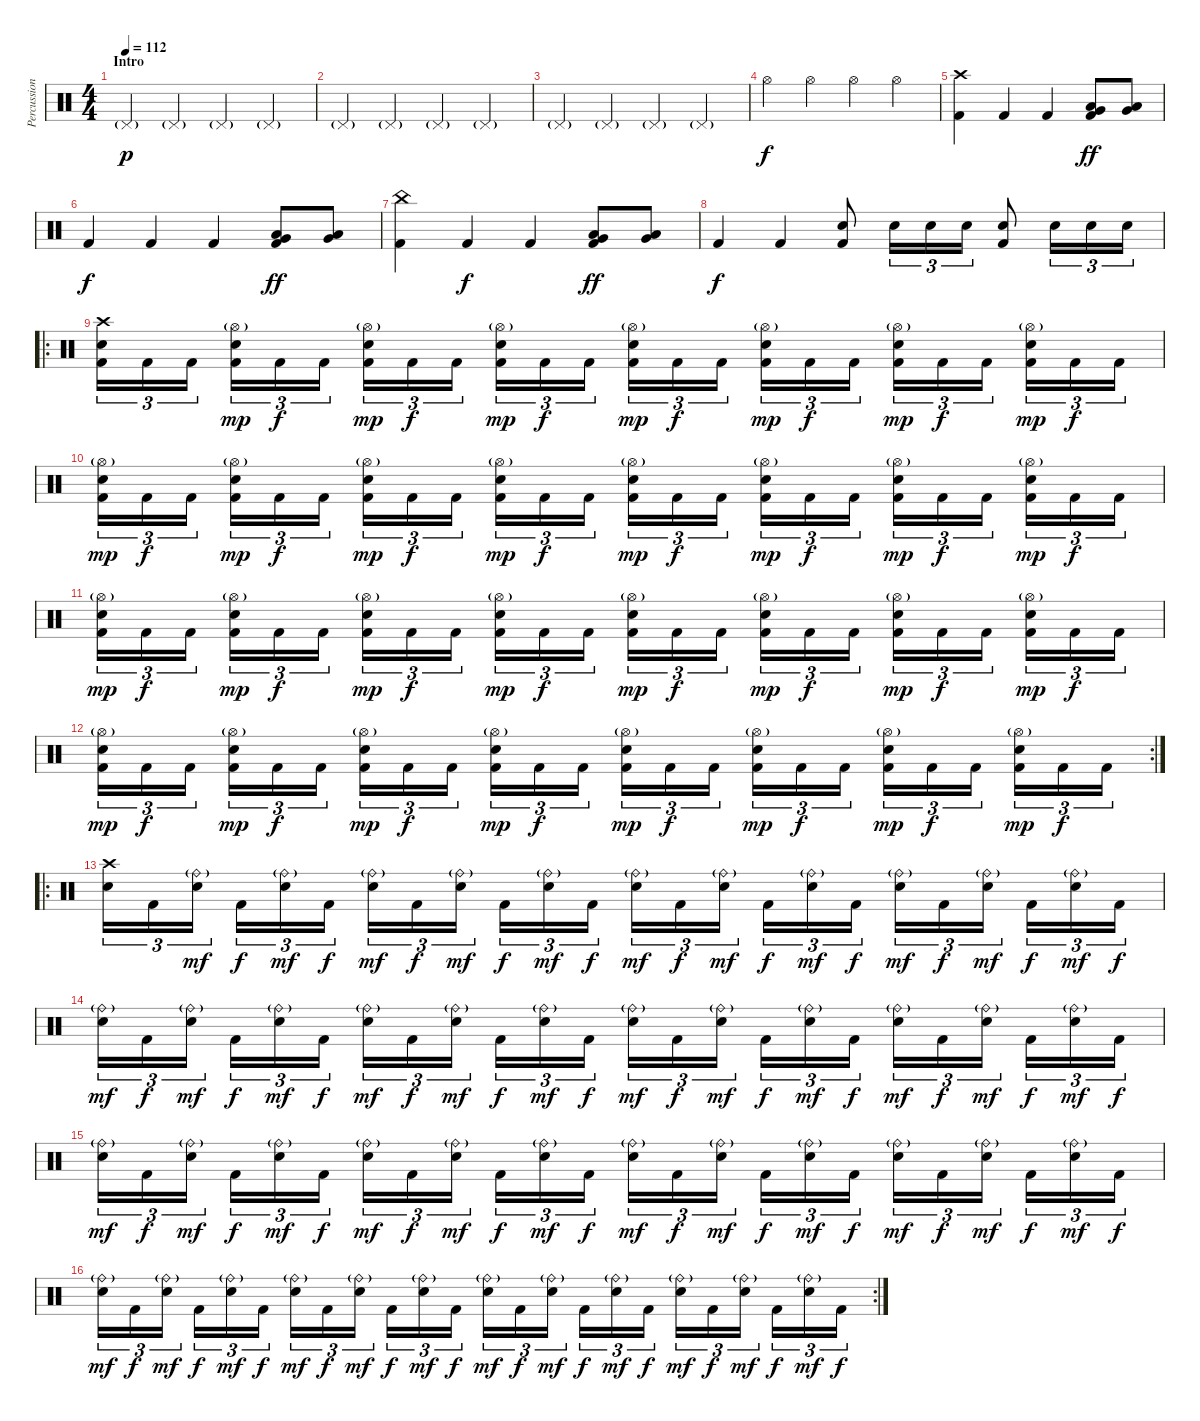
\track ("Percussion" "Percussion") {instrument percussion}
\staff {score}
\articulation defaults
\ts (4 4)
\section ("" "Intro")
\tempo 112
\clef neutral
\ks c "Pedal Hi-Hat (hit)"{g}.4{dy p} "Pedal Hi-Hat (hit)"{g}.4 "Pedal Hi-Hat (hit)"{g}.4 "Pedal Hi-Hat (hit)"{g}.4
|
"Pedal Hi-Hat (hit)"{g}.4 "Pedal Hi-Hat (hit)"{g}.4 "Pedal Hi-Hat (hit)"{g}.4 "Pedal Hi-Hat (hit)"{g}.4 |
"Pedal Hi-Hat (hit)"{g}.4 "Pedal Hi-Hat (hit)"{g}.4 "Pedal Hi-Hat (hit)"{g}.4 "Pedal Hi-Hat (hit)"{g}.4 |
"Hi-Hat (open)".4{dy f} "Hi-Hat (open)".4 "Hi-Hat (open)".4 "Hi-Hat (open)".4 |
("Crash high (hit)" "Kick (hit) 2").4 "Kick (hit) 2".4 "Kick (hit) 2".4 ("Very Low Tom (hit)" "Low Tom (hit)" "Kick (hit) 2").8{dy ff} ("Very Low Tom (hit)" "Low Tom (hit)").8 |
"Kick (hit) 2".4{dy f} "Kick (hit) 2".4 "Kick (hit) 2".4 ("Very Low Tom (hit)" "Low Tom (hit)" "Kick (hit) 2").8{dy ff} ("Very Low Tom (hit)" "Low Tom (hit)").8 |
("China (hit)" "Kick (hit) 2").4 "Kick (hit) 2".4{dy f} "Kick (hit) 2".4 ("Very Low Tom (hit)" "Low Tom (hit)" "Kick (hit) 2").8{dy ff} ("Very Low Tom (hit)" "Low Tom (hit)").8 |
"Kick (hit) 2".4{dy f} "Kick (hit) 2".4 ("Electric Snare (hit)" "Kick (hit) 2").8 "Electric Snare (hit)".16{tu (3 2)} "Electric Snare (hit)".16{tu (3 2)} "Electric Snare (hit)".16{tu (3 2)} ("Electric Snare (hit)" "Kick (hit) 2").8 "Electric Snare (hit)".16{tu (3 2)} "Electric Snare (hit)".16{tu (3 2)} "Electric Snare (hit)".16{tu (3 2)} |
\ro
("Crash high (hit)" "Electric Snare (hit)" "Kick (hit) 2").16{tu (3 2)} "Kick (hit) 2".16{tu (3 2)} "Kick (hit) 2".16{tu (3 2)} ("Hi-Hat (open)"{g} "Electric Snare (hit)" "Kick (hit) 2").16{tu (3 2) dy mp} "Kick (hit) 2".16{tu (3 2) dy f} "Kick (hit) 2".16{tu (3 2)} ("Hi-Hat (open)"{g} "Electric Snare (hit)" "Kick (hit) 2").16{tu (3 2) dy mp} "Kick (hit) 2".16{tu (3 2) dy f} "Kick (hit) 2".16{tu (3 2)} ("Hi-Hat (open)"{g} "Electric Snare (hit)" "Kick (hit) 2").16{tu (3 2) dy mp} "Kick (hit) 2".16{tu (3 2) dy f} "Kick (hit) 2".16{tu (3 2)} ("Hi-Hat (open)"{g} "Electric Snare (hit)" "Kick (hit) 2").16{tu (3 2) dy mp} "Kick (hit) 2".16{tu (3 2) dy f} "Kick (hit) 2".16{tu (3 2)} ("Hi-Hat (open)"{g} "Electric Snare (hit)" "Kick (hit) 2").16{tu (3 2) dy mp} "Kick (hit) 2".16{tu (3 2) dy f} "Kick (hit) 2".16{tu (3 2)} ("Hi-Hat (open)"{g} "Electric Snare (hit)" "Kick (hit) 2").16{tu (3 2) dy mp} "Kick (hit) 2".16{tu (3 2) dy f} "Kick (hit) 2".16{tu (3 2)} ("Hi-Hat (open)"{g} "Electric Snare (hit)" "Kick (hit) 2").16{tu (3 2) dy mp} "Kick (hit) 2".16{tu (3 2) dy f} "Kick (hit) 2".16{tu (3 2)} |
("Hi-Hat (open)"{g} "Electric Snare (hit)" "Kick (hit) 2").16{tu (3 2) dy mp} "Kick (hit) 2".16{tu (3 2) dy f} "Kick (hit) 2".16{tu (3 2)} ("Hi-Hat (open)"{g} "Electric Snare (hit)" "Kick (hit) 2").16{tu (3 2) dy mp} "Kick (hit) 2".16{tu (3 2) dy f} "Kick (hit) 2".16{tu (3 2)} ("Hi-Hat (open)"{g} "Electric Snare (hit)" "Kick (hit) 2").16{tu (3 2) dy mp} "Kick (hit) 2".16{tu (3 2) dy f} "Kick (hit) 2".16{tu (3 2)} ("Hi-Hat (open)"{g} "Electric Snare (hit)" "Kick (hit) 2").16{tu (3 2) dy mp} "Kick (hit) 2".16{tu (3 2) dy f} "Kick (hit) 2".16{tu (3 2)} ("Hi-Hat (open)"{g} "Electric Snare (hit)" "Kick (hit) 2").16{tu (3 2) dy mp} "Kick (hit) 2".16{tu (3 2) dy f} "Kick (hit) 2".16{tu (3 2)} ("Hi-Hat (open)"{g} "Electric Snare (hit)" "Kick (hit) 2").16{tu (3 2) dy mp} "Kick (hit) 2".16{tu (3 2) dy f} "Kick (hit) 2".16{tu (3 2)} ("Hi-Hat (open)"{g} "Electric Snare (hit)" "Kick (hit) 2").16{tu (3 2) dy mp} "Kick (hit) 2".16{tu (3 2) dy f} "Kick (hit) 2".16{tu (3 2)} ("Hi-Hat (open)"{g} "Electric Snare (hit)" "Kick (hit) 2").16{tu (3 2) dy mp} "Kick (hit) 2".16{tu (3 2) dy f} "Kick (hit) 2".16{tu (3 2)} |
("Hi-Hat (open)"{g} "Electric Snare (hit)" "Kick (hit) 2").16{tu (3 2) dy mp} "Kick (hit) 2".16{tu (3 2) dy f} "Kick (hit) 2".16{tu (3 2)} ("Hi-Hat (open)"{g} "Electric Snare (hit)" "Kick (hit) 2").16{tu (3 2) dy mp} "Kick (hit) 2".16{tu (3 2) dy f} "Kick (hit) 2".16{tu (3 2)} ("Hi-Hat (open)"{g} "Electric Snare (hit)" "Kick (hit) 2").16{tu (3 2) dy mp} "Kick (hit) 2".16{tu (3 2) dy f} "Kick (hit) 2".16{tu (3 2)} ("Hi-Hat (open)"{g} "Electric Snare (hit)" "Kick (hit) 2").16{tu (3 2) dy mp} "Kick (hit) 2".16{tu (3 2) dy f} "Kick (hit) 2".16{tu (3 2)} ("Hi-Hat (open)"{g} "Electric Snare (hit)" "Kick (hit) 2").16{tu (3 2) dy mp} "Kick (hit) 2".16{tu (3 2) dy f} "Kick (hit) 2".16{tu (3 2)} ("Hi-Hat (open)"{g} "Electric Snare (hit)" "Kick (hit) 2").16{tu (3 2) dy mp} "Kick (hit) 2".16{tu (3 2) dy f} "Kick (hit) 2".16{tu (3 2)} ("Hi-Hat (open)"{g} "Electric Snare (hit)" "Kick (hit) 2").16{tu (3 2) dy mp} "Kick (hit) 2".16{tu (3 2) dy f} "Kick (hit) 2".16{tu (3 2)} ("Hi-Hat (open)"{g} "Electric Snare (hit)" "Kick (hit) 2").16{tu (3 2) dy mp} "Kick (hit) 2".16{tu (3 2) dy f} "Kick (hit) 2".16{tu (3 2)} |
\rc 2
("Hi-Hat (open)"{g} "Electric Snare (hit)" "Kick (hit) 2").16{tu (3 2) dy mp} "Kick (hit) 2".16{tu (3 2) dy f} "Kick (hit) 2".16{tu (3 2)} ("Hi-Hat (open)"{g} "Electric Snare (hit)" "Kick (hit) 2").16{tu (3 2) dy mp} "Kick (hit) 2".16{tu (3 2) dy f} "Kick (hit) 2".16{tu (3 2)} ("Hi-Hat (open)"{g} "Electric Snare (hit)" "Kick (hit) 2").16{tu (3 2) dy mp} "Kick (hit) 2".16{tu (3 2) dy f} "Kick (hit) 2".16{tu (3 2)} ("Hi-Hat (open)"{g} "Electric Snare (hit)" "Kick (hit) 2").16{tu (3 2) dy mp} "Kick (hit) 2".16{tu (3 2) dy f} "Kick (hit) 2".16{tu (3 2)} ("Hi-Hat (open)"{g} "Electric Snare (hit)" "Kick (hit) 2").16{tu (3 2) dy mp} "Kick (hit) 2".16{tu (3 2) dy f} "Kick (hit) 2".16{tu (3 2)} ("Hi-Hat (open)"{g} "Electric Snare (hit)" "Kick (hit) 2").16{tu (3 2) dy mp} "Kick (hit) 2".16{tu (3 2) dy f} "Kick (hit) 2".16{tu (3 2)} ("Hi-Hat (open)"{g} "Electric Snare (hit)" "Kick (hit) 2").16{tu (3 2) dy mp} "Kick (hit) 2".16{tu (3 2) dy f} "Kick (hit) 2".16{tu (3 2)} ("Hi-Hat (open)"{g} "Electric Snare (hit)" "Kick (hit) 2").16{tu (3 2) dy mp} "Kick (hit) 2".16{tu (3 2) dy f} "Kick (hit) 2".16{tu (3 2)} |
\ro
("Crash high (hit)" "Electric Snare (hit)").16{tu (3 2)} "Kick (hit) 2".16{tu (3 2)} ("Ride (bell)"{g} "Electric Snare (hit)").16{tu (3 2) dy mf} "Kick (hit) 2".16{tu (3 2) dy f} ("Ride (bell)"{g} "Electric Snare (hit)").16{tu (3 2) dy mf} "Kick (hit) 2".16{tu (3 2) dy f} ("Ride (bell)"{g} "Electric Snare (hit)").16{tu (3 2) dy mf} "Kick (hit) 2".16{tu (3 2) dy f} ("Ride (bell)"{g} "Electric Snare (hit)").16{tu (3 2) dy mf} "Kick (hit) 2".16{tu (3 2) dy f} ("Ride (bell)"{g} "Electric Snare (hit)").16{tu (3 2) dy mf} "Kick (hit) 2".16{tu (3 2) dy f} ("Ride (bell)"{g} "Electric Snare (hit)").16{tu (3 2) dy mf} "Kick (hit) 2".16{tu (3 2) dy f} ("Ride (bell)"{g} "Electric Snare (hit)").16{tu (3 2) dy mf} "Kick (hit) 2".16{tu (3 2) dy f} ("Ride (bell)"{g} "Electric Snare (hit)").16{tu (3 2) dy mf} "Kick (hit) 2".16{tu (3 2) dy f} ("Ride (bell)"{g} "Electric Snare (hit)").16{tu (3 2) dy mf} "Kick (hit) 2".16{tu (3 2) dy f} ("Ride (bell)"{g} "Electric Snare (hit)").16{tu (3 2) dy mf} "Kick (hit) 2".16{tu (3 2) dy f} ("Ride (bell)"{g} "Electric Snare (hit)").16{tu (3 2) dy mf} "Kick (hit) 2".16{tu (3 2) dy f} |
("Ride (bell)"{g} "Electric Snare (hit)").16{tu (3 2) dy mf} "Kick (hit) 2".16{tu (3 2) dy f} ("Ride (bell)"{g} "Electric Snare (hit)").16{tu (3 2) dy mf} "Kick (hit) 2".16{tu (3 2) dy f} ("Ride (bell)"{g} "Electric Snare (hit)").16{tu (3 2) dy mf} "Kick (hit) 2".16{tu (3 2) dy f} ("Ride (bell)"{g} "Electric Snare (hit)").16{tu (3 2) dy mf} "Kick (hit) 2".16{tu (3 2) dy f} ("Ride (bell)"{g} "Electric Snare (hit)").16{tu (3 2) dy mf} "Kick (hit) 2".16{tu (3 2) dy f} ("Ride (bell)"{g} "Electric Snare (hit)").16{tu (3 2) dy mf} "Kick (hit) 2".16{tu (3 2) dy f} ("Ride (bell)"{g} "Electric Snare (hit)").16{tu (3 2) dy mf} "Kick (hit) 2".16{tu (3 2) dy f} ("Ride (bell)"{g} "Electric Snare (hit)").16{tu (3 2) dy mf} "Kick (hit) 2".16{tu (3 2) dy f} ("Ride (bell)"{g} "Electric Snare (hit)").16{tu (3 2) dy mf} "Kick (hit) 2".16{tu (3 2) dy f} ("Ride (bell)"{g} "Electric Snare (hit)").16{tu (3 2) dy mf} "Kick (hit) 2".16{tu (3 2) dy f} ("Ride (bell)"{g} "Electric Snare (hit)").16{tu (3 2) dy mf} "Kick (hit) 2".16{tu (3 2) dy f} ("Ride (bell)"{g} "Electric Snare (hit)").16{tu (3 2) dy mf} "Kick (hit) 2".16{tu (3 2) dy f} |
("Ride (bell)"{g} "Electric Snare (hit)").16{tu (3 2) dy mf} "Kick (hit) 2".16{tu (3 2) dy f} ("Ride (bell)"{g} "Electric Snare (hit)").16{tu (3 2) dy mf} "Kick (hit) 2".16{tu (3 2) dy f} ("Ride (bell)"{g} "Electric Snare (hit)").16{tu (3 2) dy mf} "Kick (hit) 2".16{tu (3 2) dy f} ("Ride (bell)"{g} "Electric Snare (hit)").16{tu (3 2) dy mf} "Kick (hit) 2".16{tu (3 2) dy f} ("Ride (bell)"{g} "Electric Snare (hit)").16{tu (3 2) dy mf} "Kick (hit) 2".16{tu (3 2) dy f} ("Ride (bell)"{g} "Electric Snare (hit)").16{tu (3 2) dy mf} "Kick (hit) 2".16{tu (3 2) dy f} ("Ride (bell)"{g} "Electric Snare (hit)").16{tu (3 2) dy mf} "Kick (hit) 2".16{tu (3 2) dy f} ("Ride (bell)"{g} "Electric Snare (hit)").16{tu (3 2) dy mf} "Kick (hit) 2".16{tu (3 2) dy f} ("Ride (bell)"{g} "Electric Snare (hit)").16{tu (3 2) dy mf} "Kick (hit) 2".16{tu (3 2) dy f} ("Ride (bell)"{g} "Electric Snare (hit)").16{tu (3 2) dy mf} "Kick (hit) 2".16{tu (3 2) dy f} ("Ride (bell)"{g} "Electric Snare (hit)").16{tu (3 2) dy mf} "Kick (hit) 2".16{tu (3 2) dy f} ("Ride (bell)"{g} "Electric Snare (hit)").16{tu (3 2) dy mf} "Kick (hit) 2".16{tu (3 2) dy f} |
\rc 2
("Ride (bell)"{g} "Electric Snare (hit)").16{tu (3 2) dy mf} "Kick (hit) 2".16{tu (3 2) dy f} ("Ride (bell)"{g} "Electric Snare (hit)").16{tu (3 2) dy mf} "Kick (hit) 2".16{tu (3 2) dy f} ("Ride (bell)"{g} "Electric Snare (hit)").16{tu (3 2) dy mf} "Kick (hit) 2".16{tu (3 2) dy f} ("Ride (bell)"{g} "Electric Snare (hit)").16{tu (3 2) dy mf} "Kick (hit) 2".16{tu (3 2) dy f} ("Ride (bell)"{g} "Electric Snare (hit)").16{tu (3 2) dy mf} "Kick (hit) 2".16{tu (3 2) dy f} ("Ride (bell)"{g} "Electric Snare (hit)").16{tu (3 2) dy mf} "Kick (hit) 2".16{tu (3 2) dy f} ("Ride (bell)"{g} "Electric Snare (hit)").16{tu (3 2) dy mf} "Kick (hit) 2".16{tu (3 2) dy f} ("Ride (bell)"{g} "Electric Snare (hit)").16{tu (3 2) dy mf} "Kick (hit) 2".16{tu (3 2) dy f} ("Ride (bell)"{g} "Electric Snare (hit)").16{tu (3 2) dy mf} "Kick (hit) 2".16{tu (3 2) dy f} ("Ride (bell)"{g} "Electric Snare (hit)").16{tu (3 2) dy mf} "Kick (hit) 2".16{tu (3 2) dy f} ("Ride (bell)"{g} "Electric Snare (hit)").16{tu (3 2) dy mf} "Kick (hit) 2".16{tu (3 2) dy f} ("Ride (bell)"{g} "Electric Snare (hit)").16{tu (3 2) dy mf} "Kick (hit) 2".16{tu (3 2) dy f}
